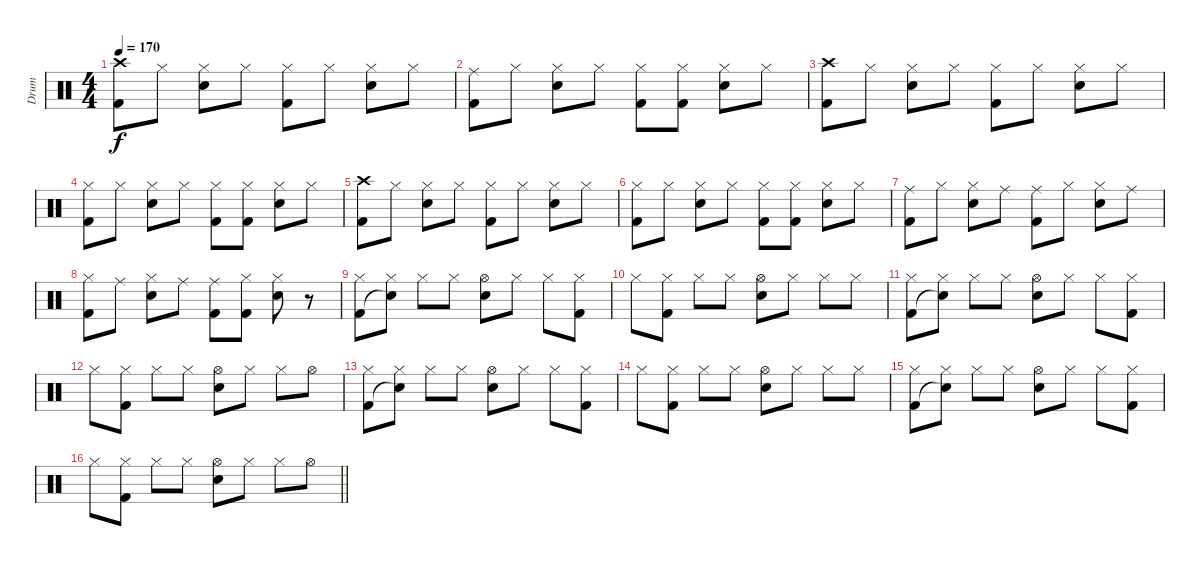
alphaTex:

\track ("Drum" "Drum") {instrument percussion}
\staff {score}
\articulation defaults
\ts (4 4)
\tempo 170
\clef neutral
\ks c
("Crash high (hit)" "Kick (hit) 2").8{dy f} "Hi-Hat (closed)".8 ("Hi-Hat (closed)" "Snare (hit) 2").8 "Hi-Hat (closed)".8 ("Hi-Hat (closed)" "Kick (hit) 2").8 "Hi-Hat (closed)".8 ("Hi-Hat (closed)" "Snare (hit) 2").8 "Hi-Hat (closed)".8 |
("Ride (middle)" "Kick (hit) 2").8 "Hi-Hat (closed)".8 ("Hi-Hat (closed)" "Snare (hit) 2").8 "Hi-Hat (closed)".8 ("Hi-Hat (closed)" "Kick (hit) 2").8 ("Hi-Hat (closed)" "Kick (hit) 2").8 ("Hi-Hat (closed)" "Snare (hit) 2").8 "Hi-Hat (closed)".8 |
("Crash high (hit)" "Kick (hit) 2").8 "Hi-Hat (closed)".8 ("Hi-Hat (closed)" "Snare (hit) 2").8 "Hi-Hat (closed)".8 ("Hi-Hat (closed)" "Kick (hit) 2").8 "Hi-Hat (closed)".8 ("Hi-Hat (closed)" "Snare (hit) 2").8 "Hi-Hat (closed)".8 |
("Hi-Hat (closed)" "Kick (hit) 2").8 "Hi-Hat (closed)".8 ("Hi-Hat (closed)" "Snare (hit) 2").8 "Hi-Hat (closed)".8 ("Hi-Hat (closed)" "Kick (hit) 2").8 ("Hi-Hat (closed)" "Kick (hit) 2").8 ("Hi-Hat (closed)" "Snare (hit) 2").8 "Hi-Hat (closed)".8 |
("Crash high (hit)" "Kick (hit) 2").8 "Hi-Hat (closed)".8 ("Hi-Hat (closed)" "Snare (hit) 2").8 "Hi-Hat (closed)".8 ("Hi-Hat (closed)" "Kick (hit) 2").8 "Hi-Hat (closed)".8 ("Hi-Hat (closed)" "Snare (hit) 2").8 "Hi-Hat (closed)".8 |
("Hi-Hat (closed)" "Kick (hit) 2").8 "Hi-Hat (closed)".8 ("Hi-Hat (closed)" "Snare (hit) 2").8 "Hi-Hat (closed)".8 ("Hi-Hat (closed)" "Kick (hit) 2").8 ("Hi-Hat (closed)" "Kick (hit) 2").8 ("Hi-Hat (closed)" "Snare (hit) 2").8 "Hi-Hat (closed)".8 |
("Ride (middle)" "Kick (hit) 2").8 "Hi-Hat (closed)".8 ("Hi-Hat (closed)" "Snare (hit) 2").8 "Ride (middle)".8 ("Ride (middle)" "Kick (hit) 2").8 "Hi-Hat (closed)".8 ("Hi-Hat (closed)" "Snare (hit) 2").8 "Ride (middle)".8 |
("Hi-Hat (closed)" "Kick (hit) 2").8 "Ride (middle)".8 ("Hi-Hat (closed)" "Snare (hit) 2").8 "Ride (middle)".8 ("Ride (middle)" "Kick (hit) 2").8 ("Hi-Hat (closed)" "Kick (hit) 2").8 ("Hi-Hat (closed)" "Snare (hit) 2").8 r.8 |
("Hi-Hat (closed)" "Kick (hit) 2").8 ("Hi-Hat (closed)" "Snare (hit)"{t}).8 "Hi-Hat (closed)".8 "Hi-Hat (closed)".8 ("Hi-Hat (open)" "Snare (hit) 2").8 "Hi-Hat (closed)".8 "Hi-Hat (closed)".8 ("Hi-Hat (closed)" "Kick (hit) 2").8 |
"Hi-Hat (closed)".8 ("Hi-Hat (closed)" "Kick (hit) 2").8 "Hi-Hat (closed)".8 "Hi-Hat (closed)".8 ("Hi-Hat (open)" "Snare (hit) 2").8 "Hi-Hat (closed)".8 "Hi-Hat (closed)".8 "Hi-Hat (closed)".8 |
("Hi-Hat (closed)" "Kick (hit) 2").8 ("Hi-Hat (closed)" "Snare (hit)"{t}).8 "Hi-Hat (closed)".8 "Hi-Hat (closed)".8 ("Hi-Hat (open)" "Snare (hit) 2").8 "Hi-Hat (closed)".8 "Hi-Hat (closed)".8 ("Hi-Hat (closed)" "Kick (hit) 2").8 |
"Hi-Hat (closed)".8 ("Hi-Hat (closed)" "Kick (hit) 2").8 "Hi-Hat (closed)".8 "Hi-Hat (closed)".8 ("Hi-Hat (open)" "Snare (hit) 2").8 "Hi-Hat (closed)".8 "Hi-Hat (closed)".8 "Hi-Hat (open)".8 |
("Hi-Hat (closed)" "Kick (hit) 2").8 ("Hi-Hat (closed)" "Snare (hit)"{t}).8 "Hi-Hat (closed)".8 "Hi-Hat (closed)".8 ("Hi-Hat (open)" "Snare (hit) 2").8 "Hi-Hat (closed)".8 "Hi-Hat (closed)".8 ("Hi-Hat (closed)" "Kick (hit) 2").8 |
"Hi-Hat (closed)".8 ("Hi-Hat (closed)" "Kick (hit) 2").8 "Hi-Hat (closed)".8 "Hi-Hat (closed)".8 ("Hi-Hat (open)" "Snare (hit) 2").8 "Hi-Hat (closed)".8 "Hi-Hat (closed)".8 "Hi-Hat (closed)".8 |
("Hi-Hat (closed)" "Kick (hit) 2").8 ("Hi-Hat (closed)" "Snare (hit)"{t}).8 "Hi-Hat (closed)".8 "Hi-Hat (closed)".8 ("Hi-Hat (open)" "Snare (hit) 2").8 "Hi-Hat (closed)".8 "Hi-Hat (closed)".8 ("Hi-Hat (closed)" "Kick (hit) 2").8 |
\barLineRight lightlight "Hi-Hat (closed)".8
("Hi-Hat (closed)" "Kick (hit) 2").8 "Hi-Hat (closed)".8 "Hi-Hat (closed)".8 ("Hi-Hat (open)" "Snare (hit) 2").8 "Hi-Hat (closed)".8 "Hi-Hat (closed)".8 "Hi-Hat (open)".8
